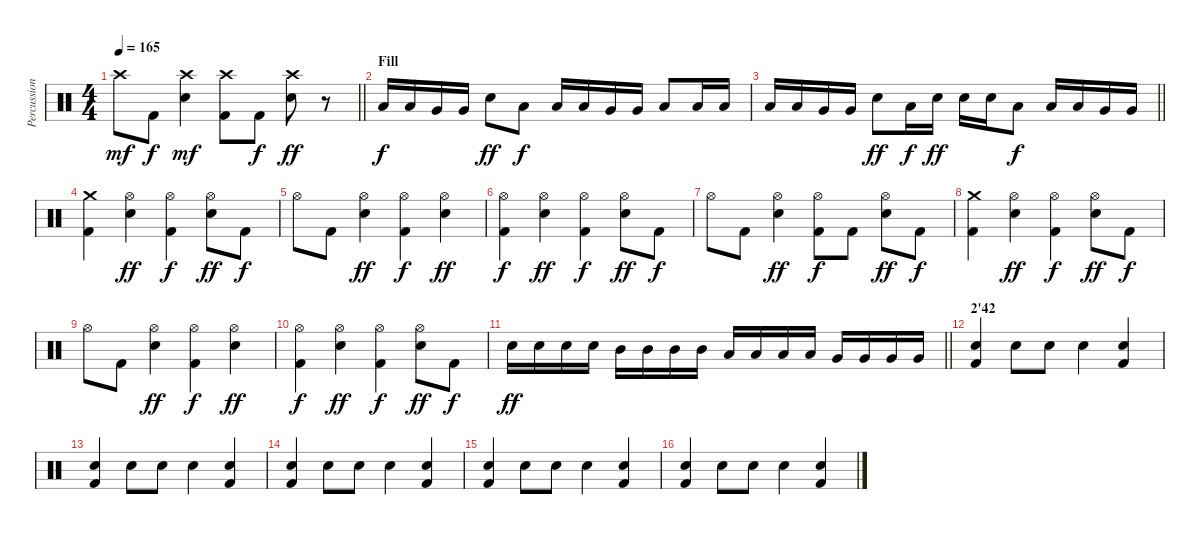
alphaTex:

\track ("Percussions" "Percussion") {instrument percussion}
\staff {score}
\articulation defaults
\ts (4 4)
\tempo 165
\clef neutral
\barLineRight lightlight
\ks c "Crash high (hit)".8{dy mf} "Kick (hit) 2".8{dy f}
("Crash high (hit)" "Electric Snare (hit)").4{dy mf} ("Crash high (hit)" "Kick (hit) 2").8 "Kick (hit) 2".8{dy f} ("Crash high (hit)" "Electric Snare (hit)").8{dy ff} r.8 |
\section ("" "Fill")
"Low Tom (hit)".16{dy f} "Low Tom (hit)".16 "Very Low Tom (hit)".16 "Very Low Tom (hit)".16 "Electric Snare (hit)".8{dy ff} "Low Floor Tom (hit)".8{dy f} "Low Tom (hit)".16 "Low Tom (hit)".16 "Very Low Tom (hit)".16 "Very Low Tom (hit)".16 "Low Floor Tom (hit)".8 "Low Floor Tom (hit)".16 "Low Floor Tom (hit)".16 |
\barLineRight lightlight "Low Tom (hit)".16 "Low Tom (hit)".16 "Very Low Tom (hit)".16 "Very Low Tom (hit)".16 "Electric Snare (hit)".8{dy ff} "Low Floor Tom (hit)".16{dy f} "Electric Snare (hit)".16{dy ff} "Electric Snare (hit)".16 "Electric Snare (hit)".16 "Low Floor Tom (hit)".8{dy f} "Low Tom (hit)".16 "Low Tom (hit)".16 "Very Low Tom (hit)".16 "Very Low Tom (hit)".16
|
("Crash medium (hit)" "Kick (hit) 2").4 ("Hi-Hat (open)" "Electric Snare (hit)").4{dy ff} ("Hi-Hat (open)" "Kick (hit) 2").4{dy f} ("Hi-Hat (open)" "Electric Snare (hit)").8{dy ff} "Kick (hit) 2".8{dy f} |
"Hi-Hat (open)".8 "Kick (hit) 2".8 ("Hi-Hat (open)" "Electric Snare (hit)").4{dy ff} ("Hi-Hat (open)" "Kick (hit) 2").4{dy f} ("Hi-Hat (open)" "Electric Snare (hit)").4{dy ff} |
("Hi-Hat (open)" "Kick (hit) 2").4{dy f} ("Hi-Hat (open)" "Electric Snare (hit)").4{dy ff} ("Hi-Hat (open)" "Kick (hit) 2").4{dy f} ("Hi-Hat (open)" "Electric Snare (hit)").8{dy ff} "Kick (hit) 2".8{dy f} |
"Hi-Hat (open)".8 "Kick (hit) 2".8 ("Hi-Hat (open)" "Electric Snare (hit)").4{dy ff} ("Hi-Hat (open)" "Kick (hit) 2").8{dy f} "Kick (hit) 2".8 ("Hi-Hat (open)" "Electric Snare (hit)").8{dy ff} "Kick (hit) 2".8{dy f} |
("Crash medium (hit)" "Kick (hit) 2").4 ("Hi-Hat (open)" "Electric Snare (hit)").4{dy ff} ("Hi-Hat (open)" "Kick (hit) 2").4{dy f} ("Hi-Hat (open)" "Electric Snare (hit)").8{dy ff} "Kick (hit) 2".8{dy f} |
"Hi-Hat (open)".8 "Kick (hit) 2".8 ("Hi-Hat (open)" "Electric Snare (hit)").4{dy ff} ("Hi-Hat (open)" "Kick (hit) 2").4{dy f} ("Hi-Hat (open)" "Electric Snare (hit)").4{dy ff} |
("Hi-Hat (open)" "Kick (hit) 2").4{dy f} ("Hi-Hat (open)" "Electric Snare (hit)").4{dy ff} ("Hi-Hat (open)" "Kick (hit) 2").4{dy f} ("Hi-Hat (open)" "Electric Snare (hit)").8{dy ff} "Kick (hit) 2".8{dy f} |
\barLineRight lightlight "Electric Snare (hit)".16{dy ff} "Electric Snare (hit)".16 "Electric Snare (hit)".16 "Electric Snare (hit)".16 "Mid Tom (hit)".16 "Mid Tom (hit)".16 "Mid Tom (hit)".16 "Mid Tom (hit)".16 "Low Tom (hit)".16 "Low Tom (hit)".16 "Low Tom (hit)".16 "Low Tom (hit)".16 "Very Low Tom (hit)".16 "Very Low Tom (hit)".16 "Very Low Tom (hit)".16 "Very Low Tom (hit)".16
|
\section ("" "2'42")
("Electric Snare (hit)" "Kick (hit) 2").4 "Electric Snare (hit)".8 "Electric Snare (hit)".8 "Electric Snare (hit)".4 ("Electric Snare (hit)" "Kick (hit) 2").4 |
("Electric Snare (hit)" "Kick (hit) 2").4 "Electric Snare (hit)".8 "Electric Snare (hit)".8 "Electric Snare (hit)".4 ("Electric Snare (hit)" "Kick (hit) 2").4 |
("Electric Snare (hit)" "Kick (hit) 2").4 "Electric Snare (hit)".8 "Electric Snare (hit)".8 "Electric Snare (hit)".4 ("Electric Snare (hit)" "Kick (hit) 2").4 |
("Electric Snare (hit)" "Kick (hit) 2").4 "Electric Snare (hit)".8 "Electric Snare (hit)".8 "Electric Snare (hit)".4 ("Electric Snare (hit)" "Kick (hit) 2").4 |
("Electric Snare (hit)" "Kick (hit) 2").4 "Electric Snare (hit)".8 "Electric Snare (hit)".8 "Electric Snare (hit)".4 ("Electric Snare (hit)" "Kick (hit) 2").4
